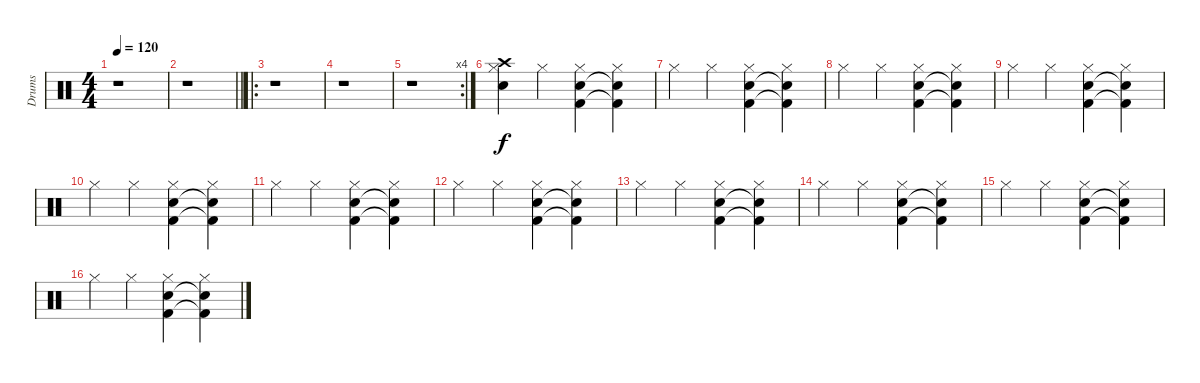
\track ("Drums" "Drums") {instrument percussion}
\staff {score}
\articulation defaults
\ts (4 4)
\tempo 120
\clef neutral
\ks c
r.1{dy f} |
\barLineRight lightlight
r.1 |
\ro
r.1 |
r.1 |
\rc 4
r.1 |
("Crash high (hit)" "Hi-Hat (closed)" "Snare (hit) 2").4 "Hi-Hat (closed)".4 ("Hi-Hat (closed)" "Snare (hit) 2" "Kick (hit) 2").4 ("Hi-Hat (closed)" "Snare (hit) 2"{t} "Kick (hit) 2"{t}).4 |
"Hi-Hat (closed)".4 "Hi-Hat (closed)".4 ("Hi-Hat (closed)" "Snare (hit) 2" "Kick (hit) 2").4 ("Hi-Hat (closed)" "Snare (hit) 2"{t} "Kick (hit) 2"{t}).4 |
"Hi-Hat (closed)".4 "Hi-Hat (closed)".4 ("Hi-Hat (closed)" "Snare (hit) 2" "Kick (hit) 2").4 ("Hi-Hat (closed)" "Snare (hit) 2"{t} "Kick (hit) 2"{t}).4 |
"Hi-Hat (closed)".4 "Hi-Hat (closed)".4 ("Hi-Hat (closed)" "Snare (hit) 2" "Kick (hit) 2").4 ("Hi-Hat (closed)" "Snare (hit) 2"{t} "Kick (hit) 2"{t}).4 |
"Hi-Hat (closed)".4 "Hi-Hat (closed)".4 ("Hi-Hat (closed)" "Snare (hit) 2" "Kick (hit) 2").4 ("Hi-Hat (closed)" "Snare (hit) 2"{t} "Kick (hit) 2"{t}).4 |
"Hi-Hat (closed)".4 "Hi-Hat (closed)".4 ("Hi-Hat (closed)" "Snare (hit) 2" "Kick (hit) 2").4 ("Hi-Hat (closed)" "Snare (hit) 2"{t} "Kick (hit) 2"{t}).4 |
"Hi-Hat (closed)".4 "Hi-Hat (closed)".4 ("Hi-Hat (closed)" "Snare (hit) 2" "Kick (hit) 2").4 ("Hi-Hat (closed)" "Snare (hit) 2"{t} "Kick (hit) 2"{t}).4 |
"Hi-Hat (closed)".4 "Hi-Hat (closed)".4 ("Hi-Hat (closed)" "Snare (hit) 2" "Kick (hit) 2").4 ("Hi-Hat (closed)" "Snare (hit) 2"{t} "Kick (hit) 2"{t}).4 |
"Hi-Hat (closed)".4 "Hi-Hat (closed)".4 ("Hi-Hat (closed)" "Snare (hit) 2" "Kick (hit) 2").4 ("Hi-Hat (closed)" "Snare (hit) 2"{t} "Kick (hit) 2"{t}).4 |
"Hi-Hat (closed)".4 "Hi-Hat (closed)".4 ("Hi-Hat (closed)" "Snare (hit) 2" "Kick (hit) 2").4 ("Hi-Hat (closed)" "Snare (hit) 2"{t} "Kick (hit) 2"{t}).4 |
"Hi-Hat (closed)".4 "Hi-Hat (closed)".4 ("Hi-Hat (closed)" "Snare (hit) 2" "Kick (hit) 2").4 ("Hi-Hat (closed)" "Snare (hit) 2"{t} "Kick (hit) 2"{t}).4
